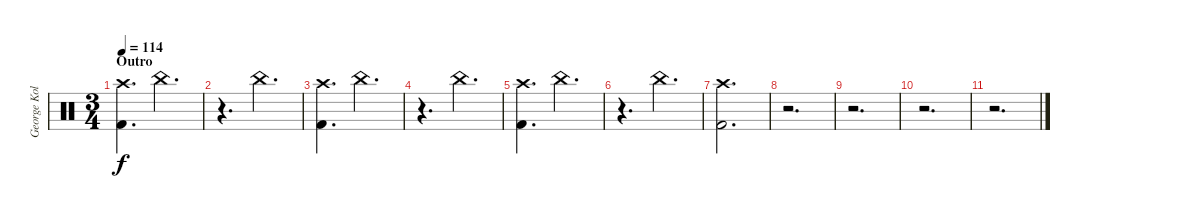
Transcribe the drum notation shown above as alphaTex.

\track ("George Kollias" "George Kol") {instrument percussion}
\staff {score}
\articulation defaults
\ts (3 4)
\section ("" "Outro")
\tempo 114
\clef neutral
\ks c
("Crash high (hit)" "Kick (hit) 2").4{d dy f} "China (hit)".4{d} |
r.4{d} "China (hit)".4{d} |
("Crash high (hit)" "Kick (hit) 2").4{d} "China (hit)".4{d} |
r.4{d} "China (hit)".4{d} |
("Crash high (hit)" "Kick (hit) 2").4{d} "China (hit)".4{d} |
r.4{d} "China (hit)".4{d} |
("Crash high (hit)" "Kick (hit) 2").2{d} |
r.2{d} |
r.2{d} |
r.2{d} |
r.2{d}
